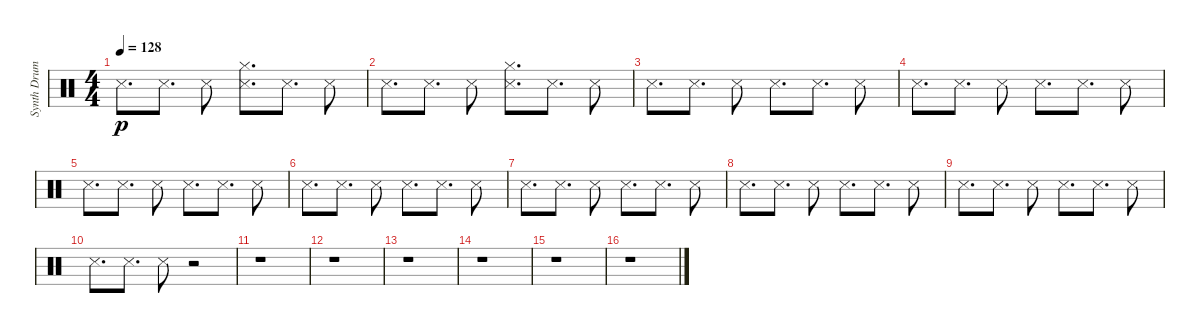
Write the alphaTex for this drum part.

\track ("Synth Drums" "Synth Drum") {instrument percussion}
\staff {score}
\articulation defaults
\ts (4 4)
\tempo 128
\clef neutral
\ks c "Snare (side stick) 3".8{d dy p} "Snare (side stick) 3".8{d} "Snare (side stick) 3".8
("Hi-Hat (closed)" "Snare (side stick) 3").8{d} "Snare (side stick) 3".8{d} "Snare (side stick) 3".8 |
"Snare (side stick) 3".8{d} "Snare (side stick) 3".8{d} "Snare (side stick) 3".8 ("Hi-Hat (closed)" "Snare (side stick) 3").8{d} "Snare (side stick) 3".8{d} "Snare (side stick) 3".8 |
"Snare (side stick) 3".8{d} "Snare (side stick) 3".8{d} "Snare (side stick) 3".8 "Snare (side stick) 3".8{d} "Snare (side stick) 3".8{d} "Snare (side stick) 3".8 |
"Snare (side stick) 3".8{d} "Snare (side stick) 3".8{d} "Snare (side stick) 3".8 "Snare (side stick) 3".8{d} "Snare (side stick) 3".8{d} "Snare (side stick) 3".8 |
"Snare (side stick) 3".8{d} "Snare (side stick) 3".8{d} "Snare (side stick) 3".8 "Snare (side stick) 3".8{d} "Snare (side stick) 3".8{d} "Snare (side stick) 3".8 |
"Snare (side stick) 3".8{d} "Snare (side stick) 3".8{d} "Snare (side stick) 3".8 "Snare (side stick) 3".8{d} "Snare (side stick) 3".8{d} "Snare (side stick) 3".8 |
"Snare (side stick) 3".8{d} "Snare (side stick) 3".8{d} "Snare (side stick) 3".8 "Snare (side stick) 3".8{d} "Snare (side stick) 3".8{d} "Snare (side stick) 3".8 |
"Snare (side stick) 3".8{d} "Snare (side stick) 3".8{d} "Snare (side stick) 3".8 "Snare (side stick) 3".8{d} "Snare (side stick) 3".8{d} "Snare (side stick) 3".8 |
"Snare (side stick) 3".8{d} "Snare (side stick) 3".8{d} "Snare (side stick) 3".8 "Snare (side stick) 3".8{d} "Snare (side stick) 3".8{d} "Snare (side stick) 3".8 |
"Snare (side stick) 3".8{d} "Snare (side stick) 3".8{d} "Snare (side stick) 3".8 r.2 |
r.1 |
r.1 |
r.1 |
r.1 |
r.1 |
r.1
